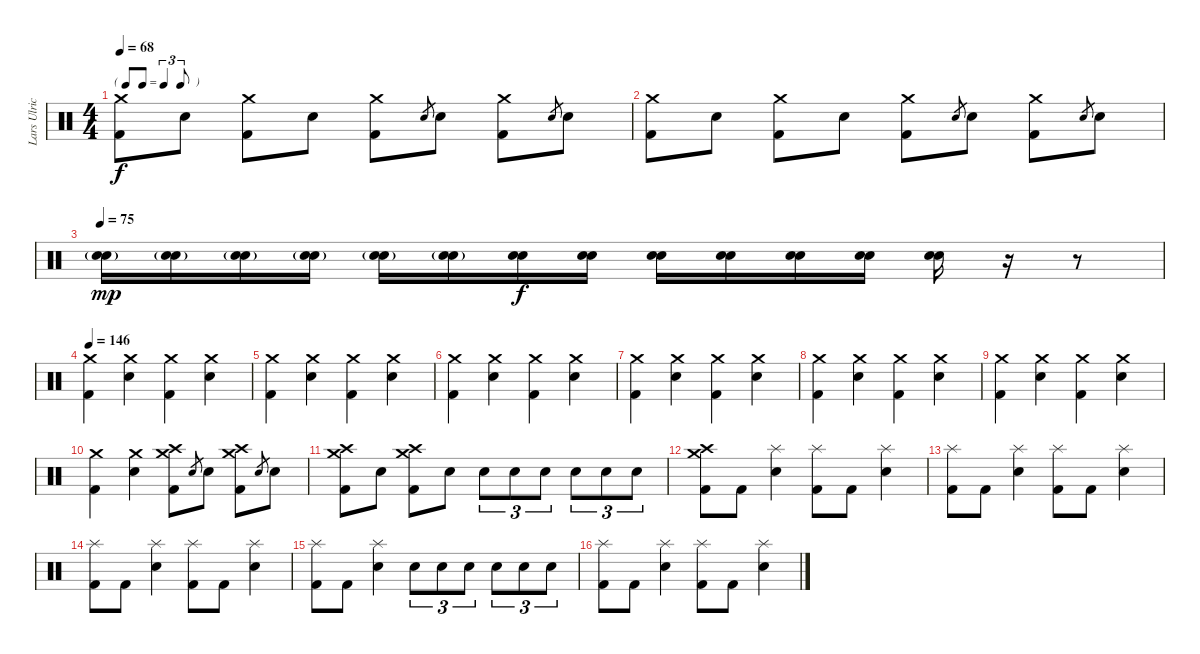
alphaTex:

\track ("Lars Ulrich" "Lars Ulric") {instrument percussion}
\staff {score}
\articulation defaults
\ts (4 4)
\tf triplet8th
\tempo 68
\clef neutral
\ks c
("Crash medium (hit)" "Kick (hit) 2").8{dy f} "Snare (hit) 2".8 ("Crash medium (hit)" "Kick (hit) 2").8 "Snare (hit) 2".8 ("Crash medium (hit)" "Kick (hit) 2").8 "Snare (hit) 2".8{gr} "Snare (hit) 2".8 ("Crash medium (hit)" "Kick (hit) 2").8 "Snare (hit) 2".8{gr} "Snare (hit) 2".8 |
("Crash medium (hit)" "Kick (hit) 2").8 "Snare (hit) 2".8 ("Crash medium (hit)" "Kick (hit) 2").8 "Snare (hit) 2".8 ("Crash medium (hit)" "Kick (hit) 2").8 "Snare (hit) 2".8{gr} "Snare (hit) 2".8 ("Crash medium (hit)" "Kick (hit) 2").8 "Snare (hit) 2".8{gr} "Snare (hit) 2".8 |
\tempo 75
("Snare (hit) 2"{g} "Snare (hit) 2"{g}).16{dy mp} ("Snare (hit) 2"{g} "Snare (hit) 2"{g}).16 ("Snare (hit) 2"{g} "Snare (hit) 2"{g}).16 ("Snare (hit) 2"{g} "Snare (hit) 2"{g}).16 ("Snare (hit) 2"{g} "Snare (hit) 2"{g}).16 ("Snare (hit) 2"{g} "Snare (hit) 2"{g}).16 ("Snare (hit) 2" "Snare (hit) 2").16{dy f} ("Snare (hit) 2" "Snare (hit) 2").16 ("Snare (hit) 2" "Snare (hit) 2").16 ("Snare (hit) 2" "Snare (hit) 2").16 ("Snare (hit) 2" "Snare (hit) 2").16 ("Snare (hit) 2" "Snare (hit) 2").16 ("Snare (hit) 2" "Snare (hit) 2").16 r.16 r.8 |
\tempo 146
("Crash medium (hit)" "Kick (hit) 2").4 ("Crash medium (hit)" "Snare (hit) 2").4 ("Crash medium (hit)" "Kick (hit) 2").4 ("Crash medium (hit)" "Snare (hit) 2").4 |
("Crash medium (hit)" "Kick (hit) 2").4 ("Crash medium (hit)" "Snare (hit) 2").4 ("Crash medium (hit)" "Kick (hit) 2").4 ("Crash medium (hit)" "Snare (hit) 2").4 |
("Crash medium (hit)" "Kick (hit) 2").4 ("Crash medium (hit)" "Snare (hit) 2").4 ("Crash medium (hit)" "Kick (hit) 2").4 ("Crash medium (hit)" "Snare (hit) 2").4 |
("Crash medium (hit)" "Kick (hit) 2").4 ("Crash medium (hit)" "Snare (hit) 2").4 ("Crash medium (hit)" "Kick (hit) 2").4 ("Crash medium (hit)" "Snare (hit) 2").4 |
("Crash medium (hit)" "Kick (hit) 2").4 ("Crash medium (hit)" "Snare (hit) 2").4 ("Crash medium (hit)" "Kick (hit) 2").4 ("Crash medium (hit)" "Snare (hit) 2").4 |
("Crash medium (hit)" "Kick (hit) 2").4 ("Crash medium (hit)" "Snare (hit) 2").4 ("Crash medium (hit)" "Kick (hit) 2").4 ("Crash medium (hit)" "Snare (hit) 2").4 |
("Crash medium (hit)" "Kick (hit) 2").4 ("Crash medium (hit)" "Snare (hit) 2").4 ("Crash medium (hit)" "Crash high (hit)" "Kick (hit) 2").8 "Snare (hit) 2".8{gr} "Snare (hit) 2".8 ("Crash medium (hit)" "Crash high (hit)" "Kick (hit) 2").8 "Snare (hit) 2".8{gr} "Snare (hit) 2".8 |
("Crash medium (hit)" "Crash high (hit)" "Kick (hit) 2").8 "Snare (hit) 2".8 ("Crash medium (hit)" "Crash high (hit)" "Kick (hit) 2").8 "Snare (hit) 2".8 "Snare (hit) 2".8{tu (3 2)} "Snare (hit) 2".8{tu (3 2)} "Snare (hit) 2".8{tu (3 2)} "Snare (hit) 2".8{tu (3 2)} "Snare (hit) 2".8{tu (3 2)} "Snare (hit) 2".8{tu (3 2)} |
("Crash medium (hit)" "Crash high (hit)" "Kick (hit) 2").8 "Kick (hit) 2".8 ("Splash (hit)" "Snare (hit) 2").4 ("Splash (hit)" "Kick (hit) 2").8 "Kick (hit) 2".8 ("Splash (hit)" "Snare (hit) 2").4 |
("Splash (hit)" "Kick (hit) 2").8 "Kick (hit) 2".8 ("Splash (hit)" "Snare (hit) 2").4 ("Splash (hit)" "Kick (hit) 2").8 "Kick (hit) 2".8 ("Splash (hit)" "Snare (hit) 2").4 |
("Splash (hit)" "Kick (hit) 2").8 "Kick (hit) 2".8 ("Splash (hit)" "Snare (hit) 2").4 ("Splash (hit)" "Kick (hit) 2").8 "Kick (hit) 2".8 ("Splash (hit)" "Snare (hit) 2").4 |
("Splash (hit)" "Kick (hit) 2").8 "Kick (hit) 2".8 ("Splash (hit)" "Snare (hit) 2").4 "Snare (hit) 2".8{tu (3 2)} "Snare (hit) 2".8{tu (3 2)} "Snare (hit) 2".8{tu (3 2)} "Snare (hit) 2".8{tu (3 2)} "Snare (hit) 2".8{tu (3 2)} "Snare (hit) 2".8{tu (3 2)} |
("Splash (hit)" "Kick (hit) 2").8 "Kick (hit) 2".8 ("Splash (hit)" "Snare (hit) 2").4 ("Splash (hit)" "Kick (hit) 2").8 "Kick (hit) 2".8 ("Splash (hit)" "Snare (hit) 2").4
